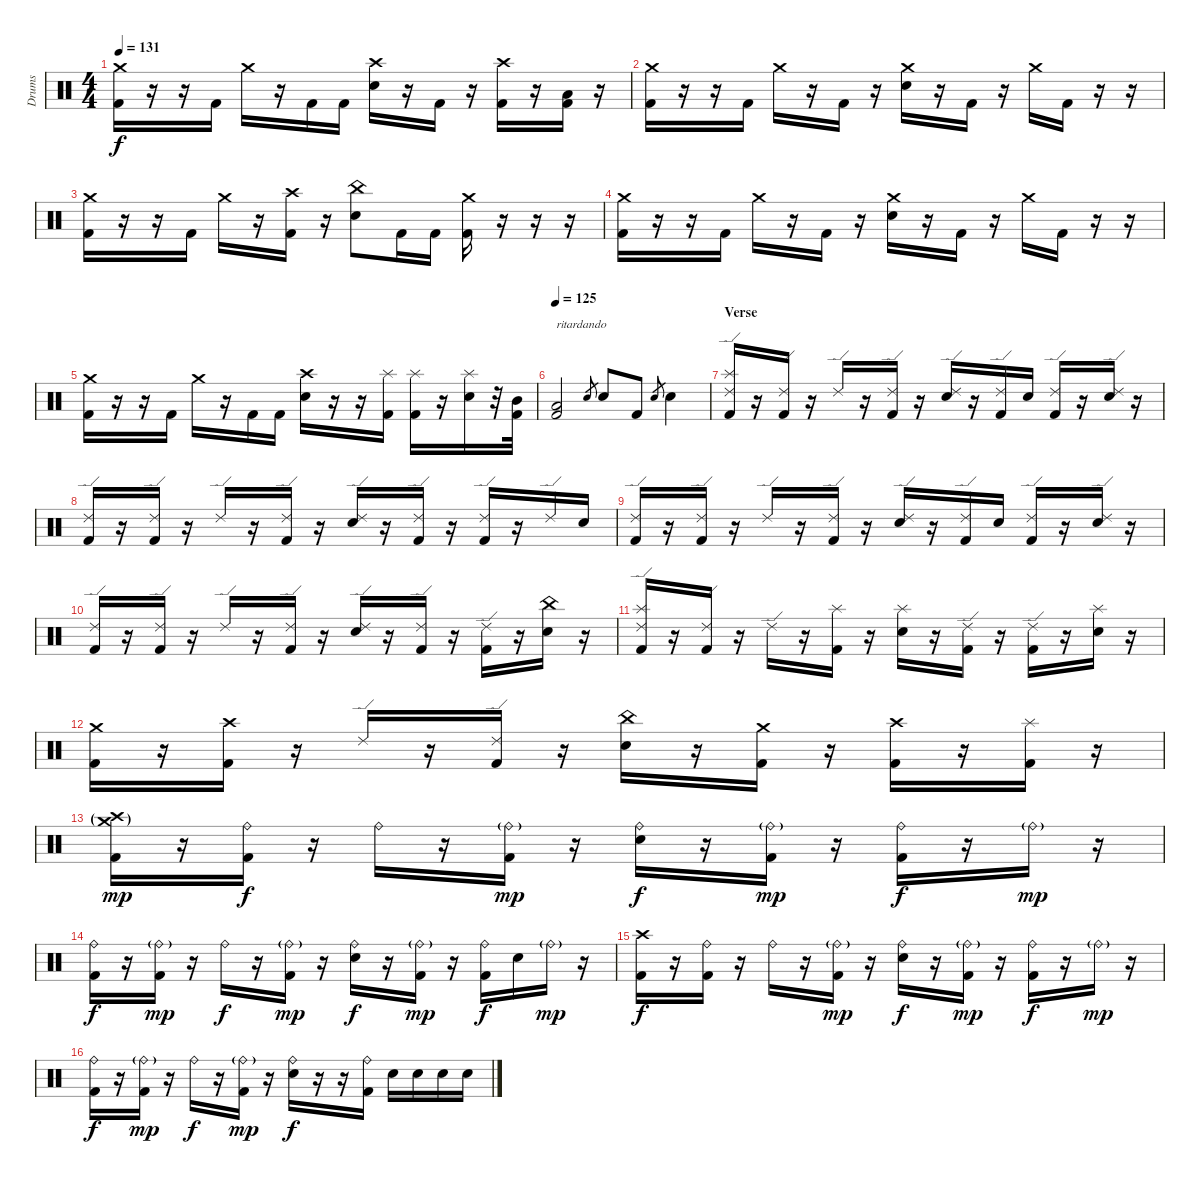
\track ("Drums" "Drums") {instrument percussion}
\staff {score}
\articulation defaults
\ts (4 4)
\tempo 131
\clef neutral
\ks c
("Crash medium (hit)" "Kick (hit) 2").16{dy f} r.16 r.16 "Kick (hit) 2".16 "Crash medium (hit)".16 r.16 "Kick (hit) 2".16 "Kick (hit) 2".16 ("Crash high (hit)" "Electric Snare (hit)").16 r.16 "Kick (hit) 2".16 r.16 ("Crash high (hit)" "Kick (hit) 2").16 r.16 ("Low Tom (hit)" "Kick (hit) 2").16 r.16 |
("Crash medium (hit)" "Kick (hit) 2").16 r.16 r.16 "Kick (hit) 2".16 "Crash medium (hit)".16 r.16 "Kick (hit) 2".16 r.16 ("Crash medium (hit)" "Electric Snare (hit)").16 r.16 "Kick (hit) 2".16 r.16 "Crash medium (hit)".16 "Kick (hit) 2".16 r.16 r.16 |
("Crash medium (hit)" "Kick (hit) 2").16 r.16 r.16 "Kick (hit) 2".16 "Crash medium (hit)".16 r.16 ("Crash high (hit)" "Kick (hit) 2").16 r.16 ("China (hit)" "Electric Snare (hit)").8 "Kick (hit) 2".16 "Kick (hit) 2".16 ("Crash medium (hit)" "Kick (hit) 2").16 r.16 r.16 r.16 |
("Crash medium (hit)" "Kick (hit) 2").16 r.16 r.16 "Kick (hit) 2".16 "Crash medium (hit)".16 r.16 "Kick (hit) 2".16 r.16 ("Crash medium (hit)" "Electric Snare (hit)").16 r.16 "Kick (hit) 2".16 r.16 "Crash medium (hit)".16 "Kick (hit) 2".16 r.16 r.16 |
("Crash medium (hit)" "Kick (hit) 2").16 r.16 r.16 "Kick (hit) 2".16 "Crash medium (hit)".16 r.16 "Kick (hit) 2".16 "Kick (hit) 2".16 ("Crash high (hit)" "Electric Snare (hit)").16 r.16 r.16 ("Splash (hit)" "Kick (hit) 2").16 ("Splash (hit)" "Kick (hit) 2").16 r.16 ("Splash (hit)" "Electric Snare (hit)").16 r.32 ("Mid Tom (hit)" "Kick (hit) 2").32 |
\tempo 125
("Low Tom (hit)" "Kick (hit) 2").2{txt "ritardando"} "Electric Snare (hit)".8{gr} "Electric Snare (hit)".8 "Kick (hit) 2".8 "Electric Snare (hit)".8{gr} "Electric Snare (hit)".4 |
\section ("" "Verse")
("Ride (edge) 2" "Splash (hit)" "Kick (hit) 2").16 r.16 ("Ride (edge) 2" "Kick (hit) 2").16 r.16 "Ride (edge) 2".16 r.16 ("Ride (edge) 2" "Kick (hit) 2").16 r.16 ("Ride (edge) 2" "Electric Snare (hit)").16 r.16 ("Ride (edge) 2" "Kick (hit) 2").16 "Electric Snare (hit)".16 ("Ride (edge) 2" "Kick (hit) 2").16 r.16 ("Ride (edge) 2" "Electric Snare (hit)").16 r.16 |
("Ride (edge) 2" "Kick (hit) 2").16 r.16 ("Ride (edge) 2" "Kick (hit) 2").16 r.16 "Ride (edge) 2".16 r.16 ("Ride (edge) 2" "Kick (hit) 2").16 r.16 ("Ride (edge) 2" "Electric Snare (hit)").16 r.16 ("Ride (edge) 2" "Kick (hit) 2").16 r.16 ("Ride (edge) 2" "Kick (hit) 2").16 r.16 "Ride (edge) 2".16 "Electric Snare (hit)".16 |
("Ride (edge) 2" "Kick (hit) 2").16 r.16 ("Ride (edge) 2" "Kick (hit) 2").16 r.16 "Ride (edge) 2".16 r.16 ("Ride (edge) 2" "Kick (hit) 2").16 r.16 ("Ride (edge) 2" "Electric Snare (hit)").16 r.16 ("Ride (edge) 2" "Kick (hit) 2").16 "Electric Snare (hit)".16 ("Ride (edge) 2" "Kick (hit) 2").16 r.16 ("Ride (edge) 2" "Electric Snare (hit)").16 r.16 |
("Ride (edge) 2" "Kick (hit) 2").16 r.16 ("Ride (edge) 2" "Kick (hit) 2").16 r.16 "Ride (edge) 2".16 r.16 ("Ride (edge) 2" "Kick (hit) 2").16 r.16 ("Ride (edge) 2" "Electric Snare (hit)").16 r.16 ("Ride (edge) 2" "Kick (hit) 2").16 r.16 ("Ride (edge) 2" "Kick (hit) 2").16 r.16 ("China (hit)" "Electric Snare (hit)").16 r.16 |
("Ride (edge) 2" "Splash (hit)" "Kick (hit) 2").16 r.16 ("Ride (edge) 2" "Kick (hit) 2").16 r.16 "Ride (edge) 2".16 r.16 ("Splash (hit)" "Kick (hit) 2").16 r.16 ("Splash (hit)" "Electric Snare (hit)").16 r.16 ("Ride (edge) 2" "Kick (hit) 2").16 r.16 ("Ride (edge) 2" "Kick (hit) 2").16 r.16 ("Splash (hit)" "Electric Snare (hit)").16 r.16 |
("Crash medium (hit)" "Kick (hit) 2").16 r.16 ("Crash high (hit)" "Kick (hit) 2").16 r.16 "Ride (edge) 2".16 r.16 ("Ride (edge) 2" "Kick (hit) 2").16 r.16 ("China (hit)" "Electric Snare (hit)").16 r.16 ("Crash medium (hit)" "Kick (hit) 2").16 r.16 ("Crash high (hit)" "Kick (hit) 2").16 r.16 ("Splash (hit)" "Kick (hit) 2").16 r.16 |
("Crash high (hit)"{g} "Crash medium (hit)"{g} "Kick (hit) 2").16{dy mp} r.16 ("Ride (bell)" "Kick (hit) 2").16{dy f} r.16 "Ride (bell)".16 r.16 ("Ride (bell)"{g} "Kick (hit) 2").16{dy mp} r.16 ("Ride (bell)" "Electric Snare (hit)").16{dy f} r.16 ("Ride (bell)"{g} "Kick (hit) 2").16{dy mp} r.16 ("Ride (bell)" "Kick (hit) 2").16{dy f} r.16 "Ride (bell)"{g}.16{dy mp} r.16 |
("Ride (bell)" "Kick (hit) 2").16{dy f} r.16 ("Ride (bell)"{g} "Kick (hit) 2").16{dy mp} r.16 "Ride (bell)".16{dy f} r.16 ("Ride (bell)"{g} "Kick (hit) 2").16{dy mp} r.16 ("Ride (bell)" "Electric Snare (hit)").16{dy f} r.16 ("Ride (bell)"{g} "Kick (hit) 2").16{dy mp} r.16 ("Ride (bell)" "Kick (hit) 2").16{dy f} "Electric Snare (hit)".16 "Ride (bell)"{g}.16{dy mp} r.16 |
("Crash high (hit)" "Kick (hit) 2").16{dy f} r.16 ("Ride (bell)" "Kick (hit) 2").16 r.16 "Ride (bell)".16 r.16 ("Ride (bell)"{g} "Kick (hit) 2").16{dy mp} r.16 ("Ride (bell)" "Electric Snare (hit)").16{dy f} r.16 ("Ride (bell)"{g} "Kick (hit) 2").16{dy mp} r.16 ("Ride (bell)" "Kick (hit) 2").16{dy f} r.16 "Ride (bell)"{g}.16{dy mp} r.16 |
("Ride (bell)" "Kick (hit) 2").16{dy f} r.16 ("Ride (bell)"{g} "Kick (hit) 2").16{dy mp} r.16 "Ride (bell)".16{dy f} r.16 ("Ride (bell)"{g} "Kick (hit) 2").16{dy mp} r.16 ("Ride (bell)" "Electric Snare (hit)").16{dy f} r.16 r.16 ("Ride (bell)" "Kick (hit) 2").16 "Electric Snare (hit)".16 "Electric Snare (hit)".16 "Electric Snare (hit)".16 "Electric Snare (hit)".16
